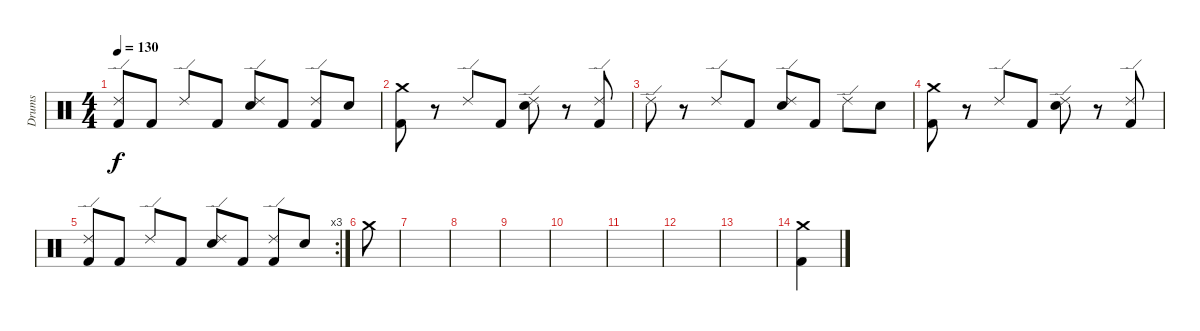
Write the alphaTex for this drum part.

\track ("Drums" "Drums") {instrument percussion}
\staff {score}
\articulation defaults
\ts (4 4)
\tempo 130
\clef neutral
\ks c
("Ride (edge) 2" "Kick (hit) 2").8{dy f} "Kick (hit) 2".8 "Ride (edge) 2".8 "Kick (hit) 2".8 ("Ride (edge) 2" "Electric Snare (hit)").8 "Kick (hit) 2".8 ("Ride (edge) 2" "Kick (hit) 2").8 "Electric Snare (hit)".8 |
("Crash medium (hit)" "Kick (hit) 2").8 r.8 "Ride (edge) 2".8 "Kick (hit) 2".8 ("Ride (edge) 2" "Electric Snare (hit)").8 r.8 ("Ride (edge) 2" "Kick (hit) 2").8 |
"Ride (edge) 2".8 r.8 "Ride (edge) 2".8 "Kick (hit) 2".8 ("Ride (edge) 2" "Electric Snare (hit)").8 "Kick (hit) 2".8 "Ride (edge) 2".8 "Electric Snare (hit)".8 |
("Crash medium (hit)" "Kick (hit) 2").8 r.8 "Ride (edge) 2".8 "Kick (hit) 2".8 ("Ride (edge) 2" "Electric Snare (hit)").8 r.8 ("Ride (edge) 2" "Kick (hit) 2").8 |
\rc 3
("Ride (edge) 2" "Kick (hit) 2").8 "Kick (hit) 2".8 "Ride (edge) 2".8 "Kick (hit) 2".8 ("Ride (edge) 2" "Electric Snare (hit)").8 "Kick (hit) 2".8 ("Ride (edge) 2" "Kick (hit) 2").8 "Electric Snare (hit)".8 |
"Crash medium (hit)".8 |
|
|
|
|
|
|
|
("Crash medium (hit)" "Kick (hit) 2").4
